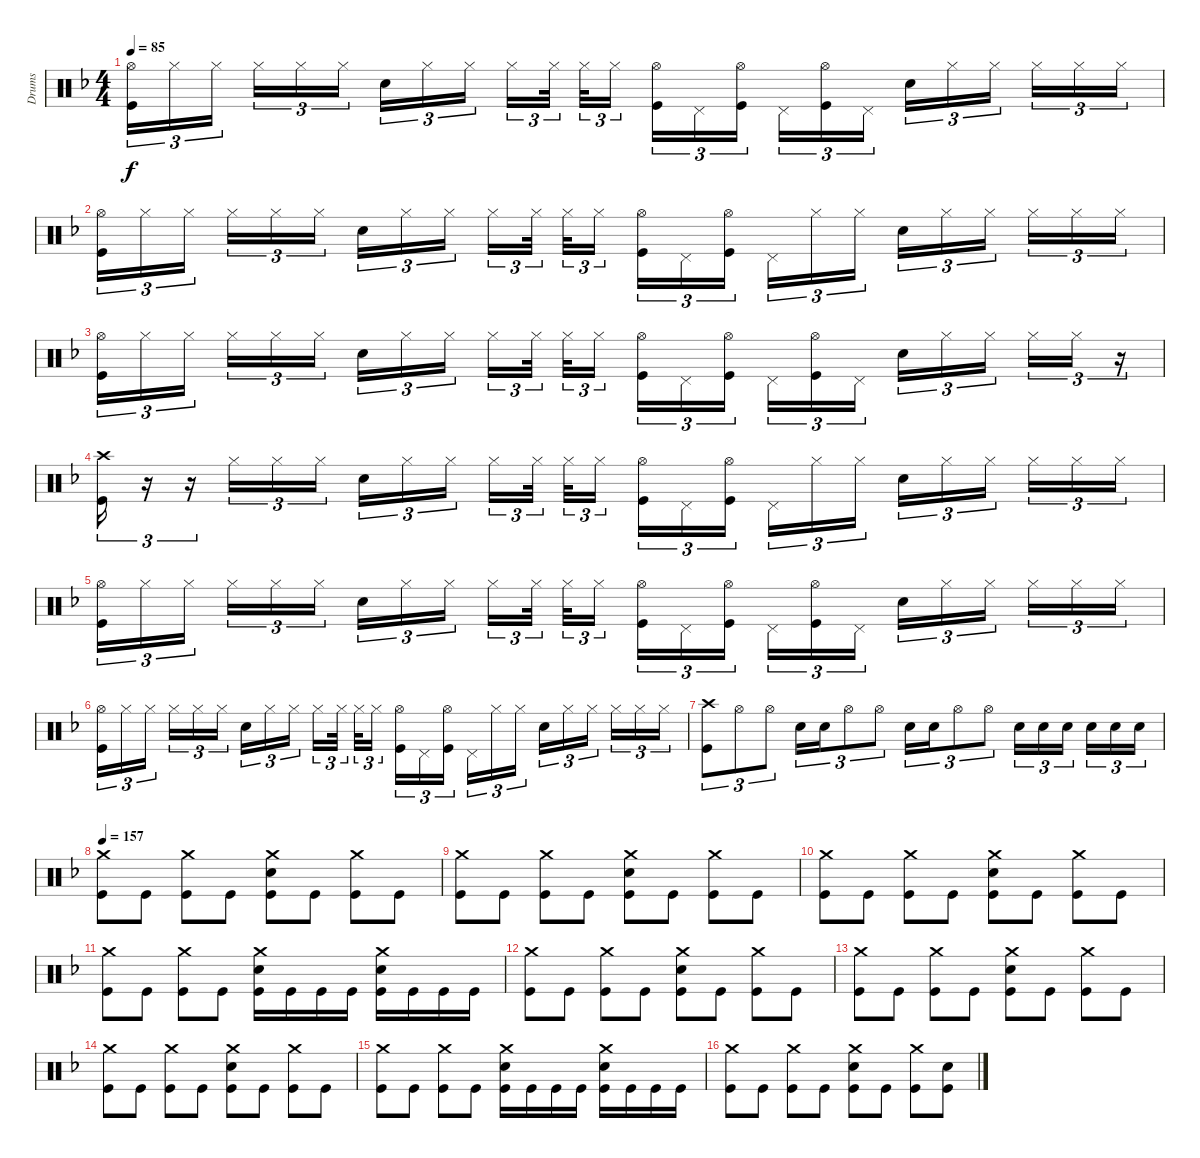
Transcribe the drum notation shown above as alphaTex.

\track ("Drums" "Drums") {instrument percussion}
\staff {score}
\articulation defaults
\ts (4 4)
\tempo 85
\clef neutral
\ks f
("Kick (hit)" "Hi-Hat (open)").16{tu (3 2) dy f} "Hi-Hat (closed)".16{tu (3 2)} "Hi-Hat (closed)".16{tu (3 2) beam splitsecondary} "Hi-Hat (closed)".16{tu (3 2)} "Hi-Hat (closed)".16{tu (3 2)} "Hi-Hat (closed)".16{tu (3 2)} "Snare (hit) 2".16{tu (3 2)} "Hi-Hat (closed)".16{tu (3 2)} "Hi-Hat (closed)".16{tu (3 2) beam splitsecondary} "Hi-Hat (closed)".16{tu (3 2)} "Hi-Hat (closed)".32{tu (3 2) beam splitsecondary} "Hi-Hat (closed)".32{tu (3 2)} "Hi-Hat (closed)".16{tu (3 2)} ("Hi-Hat (open)" "Kick (hit)").16{tu (3 2)} "Pedal Hi-Hat (hit)".16{tu (3 2)} ("Hi-Hat (open)" "Kick (hit)").16{tu (3 2) beam splitsecondary} "Pedal Hi-Hat (hit)".16{tu (3 2)} ("Hi-Hat (open)" "Kick (hit)").16{tu (3 2)} "Pedal Hi-Hat (hit)".16{tu (3 2)} "Snare (hit) 2".16{tu (3 2)} "Hi-Hat (closed)".16{tu (3 2)} "Hi-Hat (closed)".16{tu (3 2) beam splitsecondary} "Hi-Hat (closed)".16{tu (3 2)} "Hi-Hat (closed)".16{tu (3 2)} "Hi-Hat (closed)".16{tu (3 2)} |
("Kick (hit)" "Hi-Hat (open)").16{tu (3 2)} "Hi-Hat (closed)".16{tu (3 2)} "Hi-Hat (closed)".16{tu (3 2) beam splitsecondary} "Hi-Hat (closed)".16{tu (3 2)} "Hi-Hat (closed)".16{tu (3 2)} "Hi-Hat (closed)".16{tu (3 2)} "Snare (hit) 2".16{tu (3 2)} "Hi-Hat (closed)".16{tu (3 2)} "Hi-Hat (closed)".16{tu (3 2) beam splitsecondary} "Hi-Hat (closed)".16{tu (3 2)} "Hi-Hat (closed)".32{tu (3 2) beam splitsecondary} "Hi-Hat (closed)".32{tu (3 2)} "Hi-Hat (closed)".16{tu (3 2)} ("Hi-Hat (open)" "Kick (hit)").16{tu (3 2)} "Pedal Hi-Hat (hit)".16{tu (3 2)} ("Hi-Hat (open)" "Kick (hit)").16{tu (3 2) beam splitsecondary} "Pedal Hi-Hat (hit)".16{tu (3 2)} "Hi-Hat (closed)".16{tu (3 2)} "Hi-Hat (closed)".16{tu (3 2)} "Snare (hit) 2".16{tu (3 2)} "Hi-Hat (closed)".16{tu (3 2)} "Hi-Hat (closed)".16{tu (3 2) beam splitsecondary} "Hi-Hat (closed)".16{tu (3 2)} "Hi-Hat (closed)".16{tu (3 2)} "Hi-Hat (closed)".16{tu (3 2)} |
("Kick (hit)" "Hi-Hat (open)").16{tu (3 2)} "Hi-Hat (closed)".16{tu (3 2)} "Hi-Hat (closed)".16{tu (3 2) beam splitsecondary} "Hi-Hat (closed)".16{tu (3 2)} "Hi-Hat (closed)".16{tu (3 2)} "Hi-Hat (closed)".16{tu (3 2)} "Snare (hit) 2".16{tu (3 2)} "Hi-Hat (closed)".16{tu (3 2)} "Hi-Hat (closed)".16{tu (3 2) beam splitsecondary} "Hi-Hat (closed)".16{tu (3 2)} "Hi-Hat (closed)".32{tu (3 2) beam splitsecondary} "Hi-Hat (closed)".32{tu (3 2)} "Hi-Hat (closed)".16{tu (3 2)} ("Hi-Hat (open)" "Kick (hit)").16{tu (3 2)} "Pedal Hi-Hat (hit)".16{tu (3 2)} ("Hi-Hat (open)" "Kick (hit)").16{tu (3 2) beam splitsecondary} "Pedal Hi-Hat (hit)".16{tu (3 2)} ("Hi-Hat (open)" "Kick (hit)").16{tu (3 2)} "Pedal Hi-Hat (hit)".16{tu (3 2)} "Snare (hit) 2".16{tu (3 2)} "Hi-Hat (closed)".16{tu (3 2)} "Hi-Hat (closed)".16{tu (3 2) beam splitsecondary} "Hi-Hat (closed)".16{tu (3 2)} "Hi-Hat (closed)".16{tu (3 2)} r.16{tu (3 2)} |
("Kick (hit)" "Crash high (hit)").16{tu (3 2)} r.16{tu (3 2)} r.16{tu (3 2)} "Hi-Hat (closed)".16{tu (3 2)} "Hi-Hat (closed)".16{tu (3 2)} "Hi-Hat (closed)".16{tu (3 2)} "Snare (hit) 2".16{tu (3 2)} "Hi-Hat (closed)".16{tu (3 2)} "Hi-Hat (closed)".16{tu (3 2) beam splitsecondary} "Hi-Hat (closed)".16{tu (3 2)} "Hi-Hat (closed)".32{tu (3 2) beam splitsecondary} "Hi-Hat (closed)".32{tu (3 2)} "Hi-Hat (closed)".16{tu (3 2)} ("Hi-Hat (open)" "Kick (hit)").16{tu (3 2)} "Pedal Hi-Hat (hit)".16{tu (3 2)} ("Hi-Hat (open)" "Kick (hit)").16{tu (3 2) beam splitsecondary} "Pedal Hi-Hat (hit)".16{tu (3 2)} "Hi-Hat (closed)".16{tu (3 2)} "Hi-Hat (closed)".16{tu (3 2)} "Snare (hit) 2".16{tu (3 2)} "Hi-Hat (closed)".16{tu (3 2)} "Hi-Hat (closed)".16{tu (3 2) beam splitsecondary} "Hi-Hat (closed)".16{tu (3 2)} "Hi-Hat (closed)".16{tu (3 2)} "Hi-Hat (closed)".16{tu (3 2)} |
("Kick (hit)" "Hi-Hat (open)").16{tu (3 2)} "Hi-Hat (closed)".16{tu (3 2)} "Hi-Hat (closed)".16{tu (3 2) beam splitsecondary} "Hi-Hat (closed)".16{tu (3 2)} "Hi-Hat (closed)".16{tu (3 2)} "Hi-Hat (closed)".16{tu (3 2)} "Snare (hit) 2".16{tu (3 2)} "Hi-Hat (closed)".16{tu (3 2)} "Hi-Hat (closed)".16{tu (3 2) beam splitsecondary} "Hi-Hat (closed)".16{tu (3 2)} "Hi-Hat (closed)".32{tu (3 2) beam splitsecondary} "Hi-Hat (closed)".32{tu (3 2)} "Hi-Hat (closed)".16{tu (3 2)} ("Hi-Hat (open)" "Kick (hit)").16{tu (3 2)} "Pedal Hi-Hat (hit)".16{tu (3 2)} ("Hi-Hat (open)" "Kick (hit)").16{tu (3 2) beam splitsecondary} "Pedal Hi-Hat (hit)".16{tu (3 2)} ("Hi-Hat (open)" "Kick (hit)").16{tu (3 2)} "Pedal Hi-Hat (hit)".16{tu (3 2)} "Snare (hit) 2".16{tu (3 2)} "Hi-Hat (closed)".16{tu (3 2)} "Hi-Hat (closed)".16{tu (3 2) beam splitsecondary} "Hi-Hat (closed)".16{tu (3 2)} "Hi-Hat (closed)".16{tu (3 2)} "Hi-Hat (closed)".16{tu (3 2)} |
("Kick (hit)" "Hi-Hat (open)").16{tu (3 2)} "Hi-Hat (closed)".16{tu (3 2)} "Hi-Hat (closed)".16{tu (3 2) beam splitsecondary} "Hi-Hat (closed)".16{tu (3 2)} "Hi-Hat (closed)".16{tu (3 2)} "Hi-Hat (closed)".16{tu (3 2)} "Snare (hit) 2".16{tu (3 2)} "Hi-Hat (closed)".16{tu (3 2)} "Hi-Hat (closed)".16{tu (3 2) beam splitsecondary} "Hi-Hat (closed)".16{tu (3 2)} "Hi-Hat (closed)".32{tu (3 2) beam splitsecondary} "Hi-Hat (closed)".32{tu (3 2)} "Hi-Hat (closed)".16{tu (3 2)} ("Hi-Hat (open)" "Kick (hit)").16{tu (3 2)} "Pedal Hi-Hat (hit)".16{tu (3 2)} ("Hi-Hat (open)" "Kick (hit)").16{tu (3 2) beam splitsecondary} "Pedal Hi-Hat (hit)".16{tu (3 2)} "Hi-Hat (closed)".16{tu (3 2)} "Hi-Hat (closed)".16{tu (3 2)} "Snare (hit) 2".16{tu (3 2)} "Hi-Hat (closed)".16{tu (3 2)} "Hi-Hat (closed)".16{tu (3 2) beam splitsecondary} "Hi-Hat (closed)".16{tu (3 2)} "Hi-Hat (closed)".16{tu (3 2)} "Hi-Hat (closed)".16{tu (3 2)} |
("Crash high (hit)" "Kick (hit)").8{tu (3 2)} "Hi-Hat (open)".8{tu (3 2)} "Hi-Hat (open)".8{tu (3 2)} "Snare (hit) 2".16{tu (3 2)} "Snare (hit) 2".16{tu (3 2)} "Hi-Hat (open)".8{tu (3 2)} "Hi-Hat (open)".8{tu (3 2)} "Snare (hit) 2".16{tu (3 2)} "Snare (hit) 2".16{tu (3 2)} "Hi-Hat (open)".8{tu (3 2)} "Hi-Hat (open)".8{tu (3 2)} "Snare (hit) 2".16{tu (3 2)} "Snare (hit) 2".16{tu (3 2)} "Snare (hit) 2".16{tu (3 2) beam splitsecondary} "Snare (hit) 2".16{tu (3 2)} "Snare (hit) 2".16{tu (3 2)} "Snare (hit) 2".16{tu (3 2)} |
\tempo 157
("Kick (hit)" "Crash medium (hit)").8 "Kick (hit)".8 ("Kick (hit)" "Crash medium (hit)").8 "Kick (hit)".8 ("Kick (hit)" "Crash medium (hit)" "Snare (hit) 2").8 "Kick (hit)".8 ("Kick (hit)" "Crash medium (hit)").8 "Kick (hit)".8 |
("Kick (hit)" "Crash medium (hit)").8 "Kick (hit)".8 ("Kick (hit)" "Crash medium (hit)").8 "Kick (hit)".8 ("Kick (hit)" "Crash medium (hit)" "Snare (hit) 2").8 "Kick (hit)".8 ("Kick (hit)" "Crash medium (hit)").8 "Kick (hit)".8 |
("Kick (hit)" "Crash medium (hit)").8 "Kick (hit)".8 ("Kick (hit)" "Crash medium (hit)").8 "Kick (hit)".8 ("Kick (hit)" "Crash medium (hit)" "Snare (hit) 2").8 "Kick (hit)".8 ("Kick (hit)" "Crash medium (hit)").8 "Kick (hit)".8 |
("Kick (hit)" "Crash medium (hit)").8 "Kick (hit)".8 ("Kick (hit)" "Crash medium (hit)").8 "Kick (hit)".8 ("Kick (hit)" "Crash medium (hit)" "Snare (hit) 2").16 "Kick (hit)".16 "Kick (hit)".16 "Kick (hit)".16 ("Kick (hit)" "Crash medium (hit)" "Snare (hit) 2").16 "Kick (hit)".16 "Kick (hit)".16 "Kick (hit)".16 |
("Kick (hit)" "Crash medium (hit)").8 "Kick (hit)".8 ("Kick (hit)" "Crash medium (hit)").8 "Kick (hit)".8 ("Kick (hit)" "Crash medium (hit)" "Snare (hit) 2").8 "Kick (hit)".8 ("Kick (hit)" "Crash medium (hit)").8 "Kick (hit)".8 |
("Kick (hit)" "Crash medium (hit)").8 "Kick (hit)".8 ("Kick (hit)" "Crash medium (hit)").8 "Kick (hit)".8 ("Kick (hit)" "Crash medium (hit)" "Snare (hit) 2").8 "Kick (hit)".8 ("Kick (hit)" "Crash medium (hit)").8 "Kick (hit)".8 |
("Kick (hit)" "Crash medium (hit)").8 "Kick (hit)".8 ("Kick (hit)" "Crash medium (hit)").8 "Kick (hit)".8 ("Kick (hit)" "Crash medium (hit)" "Snare (hit) 2").8 "Kick (hit)".8 ("Kick (hit)" "Crash medium (hit)").8 "Kick (hit)".8 |
("Kick (hit)" "Crash medium (hit)").8 "Kick (hit)".8 ("Kick (hit)" "Crash medium (hit)").8 "Kick (hit)".8 ("Kick (hit)" "Crash medium (hit)" "Snare (hit) 2").16 "Kick (hit)".16 "Kick (hit)".16 "Kick (hit)".16 ("Kick (hit)" "Crash medium (hit)" "Snare (hit) 2").16 "Kick (hit)".16 "Kick (hit)".16 "Kick (hit)".16 |
("Kick (hit)" "Crash medium (hit)").8 "Kick (hit)".8 ("Kick (hit)" "Crash medium (hit)").8 "Kick (hit)".8 ("Kick (hit)" "Crash medium (hit)" "Snare (hit) 2").8 "Kick (hit)".8 ("Kick (hit)" "Crash medium (hit)").8 ("Kick (hit)" "Snare (hit) 2").8
